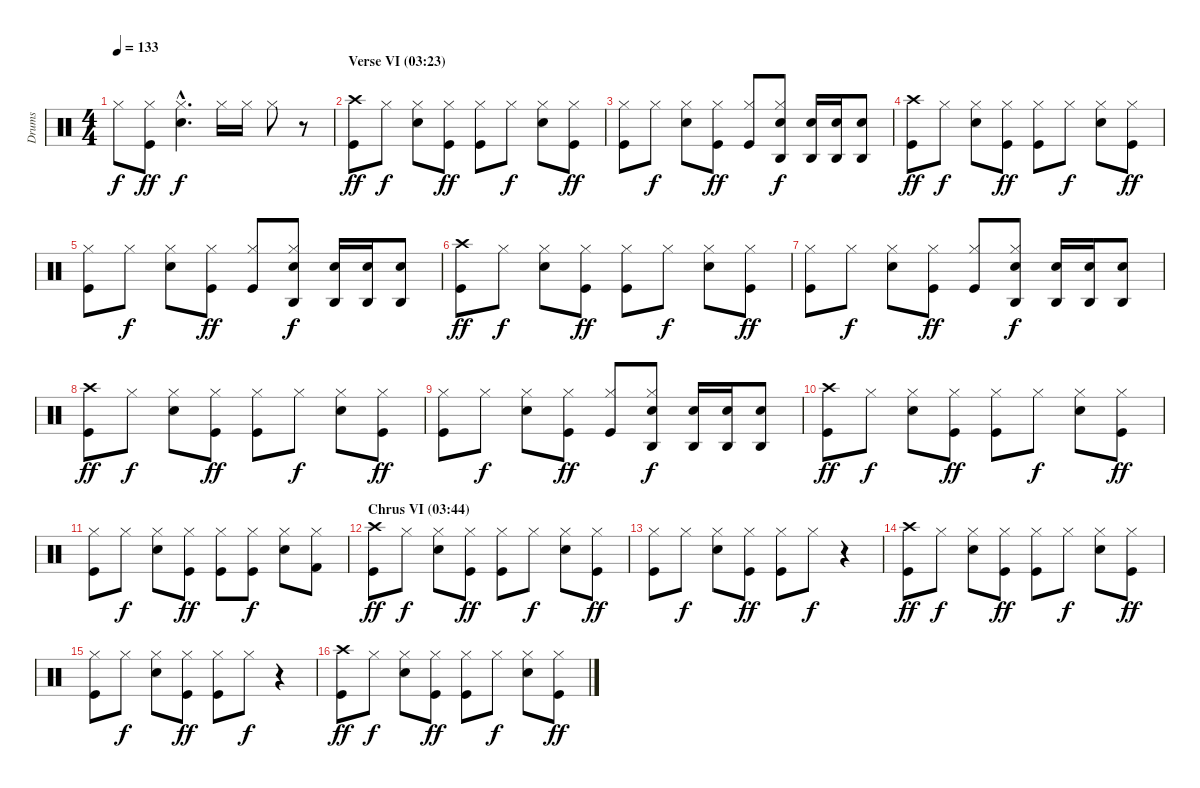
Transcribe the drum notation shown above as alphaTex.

\track ("Drums" "Drums") {instrument percussion}
\staff {score}
\articulation defaults
\ts (4 4)
\tempo 133
\clef neutral
\ks c "Hi-Hat (closed)".8{dy f}
("Hi-Hat (closed)" "Kick (hit)").8{dy ff} ("Hi-Hat (closed)"{hac} "Electric Snare (hit)"{hac}).4{d dy f} "Hi-Hat (closed)".16 "Hi-Hat (closed)".16 "Hi-Hat (closed)".8 r.8 |
\section ("" "Verse VI (03:23)")
("Crash high (hit)" "Kick (hit)").8{dy ff} "Hi-Hat (closed)".8{dy f} ("Hi-Hat (closed)" "Electric Snare (hit)").8 ("Hi-Hat (closed)" "Kick (hit)").8{dy ff} ("Hi-Hat (closed)" "Kick (hit)").8 "Hi-Hat (closed)".8{dy f} ("Hi-Hat (closed)" "Electric Snare (hit)").8 ("Hi-Hat (closed)" "Kick (hit)").8{dy ff} |
("Hi-Hat (closed)" "Kick (hit)").8 "Hi-Hat (closed)".8{dy f} ("Hi-Hat (closed)" "Electric Snare (hit)").8 ("Hi-Hat (closed)" "Kick (hit)").8{dy ff} ("Hi-Hat (closed)" "Kick (hit)").8 ("Agogo high (hit)" "Hi-Hat (closed)" "Electric Snare (hit)").8{dy f} ("Agogo high (hit)" "Electric Snare (hit)").16 ("Agogo high (hit)" "Electric Snare (hit)").16 ("Agogo high (hit)" "Electric Snare (hit)").8 |
("Crash high (hit)" "Kick (hit)").8{dy ff} "Hi-Hat (closed)".8{dy f} ("Hi-Hat (closed)" "Electric Snare (hit)").8 ("Hi-Hat (closed)" "Kick (hit)").8{dy ff} ("Hi-Hat (closed)" "Kick (hit)").8 "Hi-Hat (closed)".8{dy f} ("Hi-Hat (closed)" "Electric Snare (hit)").8 ("Hi-Hat (closed)" "Kick (hit)").8{dy ff} |
("Hi-Hat (closed)" "Kick (hit)").8 "Hi-Hat (closed)".8{dy f} ("Hi-Hat (closed)" "Electric Snare (hit)").8 ("Hi-Hat (closed)" "Kick (hit)").8{dy ff} ("Hi-Hat (closed)" "Kick (hit)").8 ("Agogo high (hit)" "Hi-Hat (closed)" "Electric Snare (hit)").8{dy f} ("Agogo high (hit)" "Electric Snare (hit)").16 ("Agogo high (hit)" "Electric Snare (hit)").16 ("Agogo high (hit)" "Electric Snare (hit)").8 |
("Crash high (hit)" "Kick (hit)").8{dy ff} "Hi-Hat (closed)".8{dy f} ("Hi-Hat (closed)" "Electric Snare (hit)").8 ("Hi-Hat (closed)" "Kick (hit)").8{dy ff} ("Hi-Hat (closed)" "Kick (hit)").8 "Hi-Hat (closed)".8{dy f} ("Hi-Hat (closed)" "Electric Snare (hit)").8 ("Hi-Hat (closed)" "Kick (hit)").8{dy ff} |
("Hi-Hat (closed)" "Kick (hit)").8 "Hi-Hat (closed)".8{dy f} ("Hi-Hat (closed)" "Electric Snare (hit)").8 ("Hi-Hat (closed)" "Kick (hit)").8{dy ff} ("Hi-Hat (closed)" "Kick (hit)").8 ("Agogo high (hit)" "Hi-Hat (closed)" "Electric Snare (hit)").8{dy f} ("Agogo high (hit)" "Electric Snare (hit)").16 ("Agogo high (hit)" "Electric Snare (hit)").16 ("Agogo high (hit)" "Electric Snare (hit)").8 |
("Crash high (hit)" "Kick (hit)").8{dy ff} "Hi-Hat (closed)".8{dy f} ("Hi-Hat (closed)" "Electric Snare (hit)").8 ("Hi-Hat (closed)" "Kick (hit)").8{dy ff} ("Hi-Hat (closed)" "Kick (hit)").8 "Hi-Hat (closed)".8{dy f} ("Hi-Hat (closed)" "Electric Snare (hit)").8 ("Hi-Hat (closed)" "Kick (hit)").8{dy ff} |
("Hi-Hat (closed)" "Kick (hit)").8 "Hi-Hat (closed)".8{dy f} ("Hi-Hat (closed)" "Electric Snare (hit)").8 ("Hi-Hat (closed)" "Kick (hit)").8{dy ff} ("Hi-Hat (closed)" "Kick (hit)").8 ("Agogo high (hit)" "Hi-Hat (closed)" "Electric Snare (hit)").8{dy f} ("Agogo high (hit)" "Electric Snare (hit)").16 ("Agogo high (hit)" "Electric Snare (hit)").16 ("Agogo high (hit)" "Electric Snare (hit)").8 |
("Crash high (hit)" "Kick (hit)").8{dy ff} "Hi-Hat (closed)".8{dy f} ("Hi-Hat (closed)" "Electric Snare (hit)").8 ("Hi-Hat (closed)" "Kick (hit)").8{dy ff} ("Hi-Hat (closed)" "Kick (hit)").8 "Hi-Hat (closed)".8{dy f} ("Hi-Hat (closed)" "Electric Snare (hit)").8 ("Hi-Hat (closed)" "Kick (hit)").8{dy ff} |
("Hi-Hat (closed)" "Kick (hit)").8 "Hi-Hat (closed)".8{dy f} ("Hi-Hat (closed)" "Electric Snare (hit)").8 ("Hi-Hat (closed)" "Kick (hit)").8{dy ff} ("Hi-Hat (closed)" "Kick (hit)").8 ("Hi-Hat (closed)" "Kick (hit)").8{dy f} ("Hi-Hat (closed)" "Electric Snare (hit)").8 ("Hi-Hat (closed)" "Kick (hit) 2").8 |
\section ("" "Chrus VI (03:44)")
("Crash high (hit)" "Kick (hit)").8{dy ff} "Hi-Hat (closed)".8{dy f} ("Hi-Hat (closed)" "Electric Snare (hit)").8 ("Hi-Hat (closed)" "Kick (hit)").8{dy ff} ("Hi-Hat (closed)" "Kick (hit)").8 "Hi-Hat (closed)".8{dy f} ("Hi-Hat (closed)" "Electric Snare (hit)").8 ("Hi-Hat (closed)" "Kick (hit)").8{dy ff} |
("Hi-Hat (closed)" "Kick (hit)").8 "Hi-Hat (closed)".8{dy f} ("Hi-Hat (closed)" "Electric Snare (hit)").8 ("Hi-Hat (closed)" "Kick (hit)").8{dy ff} ("Hi-Hat (closed)" "Kick (hit)").8 "Hi-Hat (closed)".8{dy f} r.4 |
("Crash high (hit)" "Kick (hit)").8{dy ff} "Hi-Hat (closed)".8{dy f} ("Hi-Hat (closed)" "Electric Snare (hit)").8 ("Hi-Hat (closed)" "Kick (hit)").8{dy ff} ("Hi-Hat (closed)" "Kick (hit)").8 "Hi-Hat (closed)".8{dy f} ("Hi-Hat (closed)" "Electric Snare (hit)").8 ("Hi-Hat (closed)" "Kick (hit)").8{dy ff} |
("Hi-Hat (closed)" "Kick (hit)").8 "Hi-Hat (closed)".8{dy f} ("Hi-Hat (closed)" "Electric Snare (hit)").8 ("Hi-Hat (closed)" "Kick (hit)").8{dy ff} ("Hi-Hat (closed)" "Kick (hit)").8 "Hi-Hat (closed)".8{dy f} r.4 |
("Crash high (hit)" "Kick (hit)").8{dy ff} "Hi-Hat (closed)".8{dy f} ("Hi-Hat (closed)" "Electric Snare (hit)").8 ("Hi-Hat (closed)" "Kick (hit)").8{dy ff} ("Hi-Hat (closed)" "Kick (hit)").8 "Hi-Hat (closed)".8{dy f} ("Hi-Hat (closed)" "Electric Snare (hit)").8 ("Hi-Hat (closed)" "Kick (hit)").8{dy ff}
